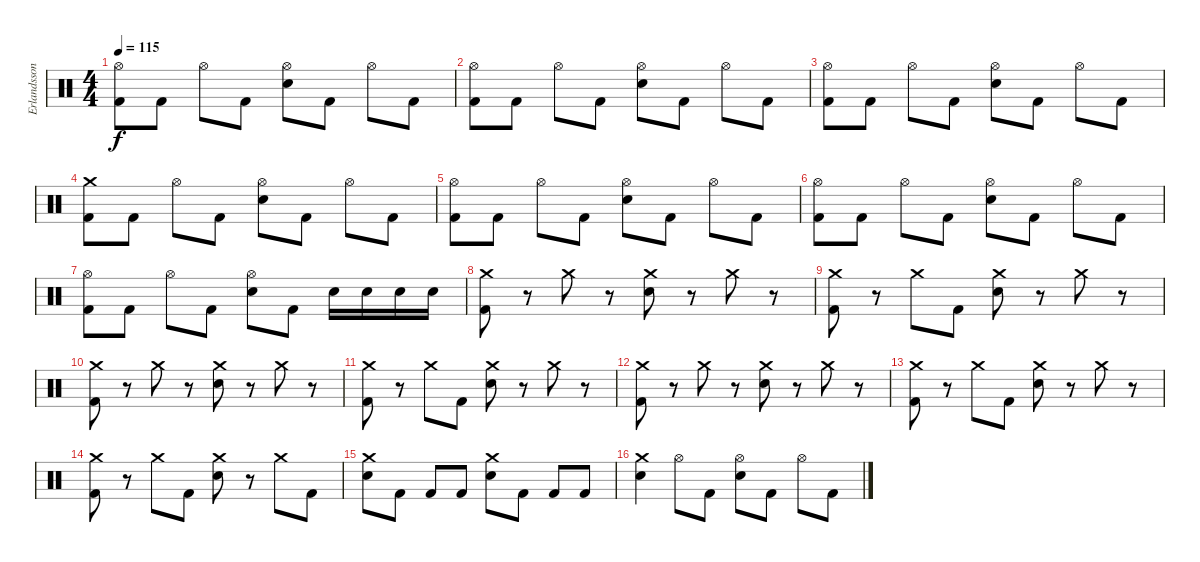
\track ("Erlandsson" "Erlandsson") {instrument percussion}
\staff {score}
\articulation defaults
\ts (4 4)
\tempo 115
\clef neutral
\ks c
("Hi-Hat (open)" "Kick (hit) 2").8{dy f} "Kick (hit) 2".8 "Hi-Hat (open)".8 "Kick (hit) 2".8 ("Hi-Hat (open)" "Electric Snare (hit)").8 "Kick (hit) 2".8 "Hi-Hat (open)".8 "Kick (hit) 2".8 |
("Hi-Hat (open)" "Kick (hit) 2").8 "Kick (hit) 2".8 "Hi-Hat (open)".8 "Kick (hit) 2".8 ("Hi-Hat (open)" "Electric Snare (hit)").8 "Kick (hit) 2".8 "Hi-Hat (open)".8 "Kick (hit) 2".8 |
("Hi-Hat (open)" "Kick (hit) 2").8 "Kick (hit) 2".8 "Hi-Hat (open)".8 "Kick (hit) 2".8 ("Hi-Hat (open)" "Electric Snare (hit)").8 "Kick (hit) 2".8 "Hi-Hat (open)".8 "Kick (hit) 2".8 |
("Crash medium (hit)" "Kick (hit) 2").8 "Kick (hit) 2".8 "Hi-Hat (open)".8 "Kick (hit) 2".8 ("Hi-Hat (open)" "Electric Snare (hit)").8 "Kick (hit) 2".8 "Hi-Hat (open)".8 "Kick (hit) 2".8 |
("Hi-Hat (open)" "Kick (hit) 2").8 "Kick (hit) 2".8 "Hi-Hat (open)".8 "Kick (hit) 2".8 ("Hi-Hat (open)" "Electric Snare (hit)").8 "Kick (hit) 2".8 "Hi-Hat (open)".8 "Kick (hit) 2".8 |
("Hi-Hat (open)" "Kick (hit) 2").8 "Kick (hit) 2".8 "Hi-Hat (open)".8 "Kick (hit) 2".8 ("Hi-Hat (open)" "Electric Snare (hit)").8 "Kick (hit) 2".8 "Hi-Hat (open)".8 "Kick (hit) 2".8 |
("Hi-Hat (open)" "Kick (hit) 2").8 "Kick (hit) 2".8 "Hi-Hat (open)".8 "Kick (hit) 2".8 ("Hi-Hat (open)" "Electric Snare (hit)").8 "Kick (hit) 2".8 "Electric Snare (hit)".16 "Electric Snare (hit)".16 "Electric Snare (hit)".16 "Electric Snare (hit)".16 |
("Crash medium (hit)" "Kick (hit) 2").8 r.8 "Crash medium (hit)".8 r.8 ("Crash medium (hit)" "Electric Snare (hit)").8 r.8 "Crash medium (hit)".8 r.8 |
("Crash medium (hit)" "Kick (hit) 2").8 r.8 "Crash medium (hit)".8 "Kick (hit) 2".8 ("Crash medium (hit)" "Electric Snare (hit)").8 r.8 "Crash medium (hit)".8 r.8 |
("Crash medium (hit)" "Kick (hit) 2").8 r.8 "Crash medium (hit)".8 r.8 ("Crash medium (hit)" "Electric Snare (hit)").8 r.8 "Crash medium (hit)".8 r.8 |
("Crash medium (hit)" "Kick (hit) 2").8 r.8 "Crash medium (hit)".8 "Kick (hit) 2".8 ("Crash medium (hit)" "Electric Snare (hit)").8 r.8 "Crash medium (hit)".8 r.8 |
("Crash medium (hit)" "Kick (hit) 2").8 r.8 "Crash medium (hit)".8 r.8 ("Crash medium (hit)" "Electric Snare (hit)").8 r.8 "Crash medium (hit)".8 r.8 |
("Crash medium (hit)" "Kick (hit) 2").8 r.8 "Crash medium (hit)".8 "Kick (hit) 2".8 ("Crash medium (hit)" "Electric Snare (hit)").8 r.8 "Crash medium (hit)".8 r.8 |
("Crash medium (hit)" "Kick (hit) 2").8 r.8 "Crash medium (hit)".8 "Kick (hit) 2".8 ("Crash medium (hit)" "Electric Snare (hit)").8 r.8 "Crash medium (hit)".8 "Kick (hit) 2".8 |
("Crash medium (hit)" "Electric Snare (hit)").8 "Kick (hit) 2".8 "Kick (hit) 2".8 "Kick (hit) 2".8 ("Crash medium (hit)" "Electric Snare (hit)").8 "Kick (hit) 2".8 "Kick (hit) 2".8 "Kick (hit) 2".8 |
("Crash medium (hit)" "Electric Snare (hit)").4 "Hi-Hat (open)".8 "Kick (hit) 2".8 ("Hi-Hat (open)" "Electric Snare (hit)").8 "Kick (hit) 2".8 "Hi-Hat (open)".8 "Kick (hit) 2".8
